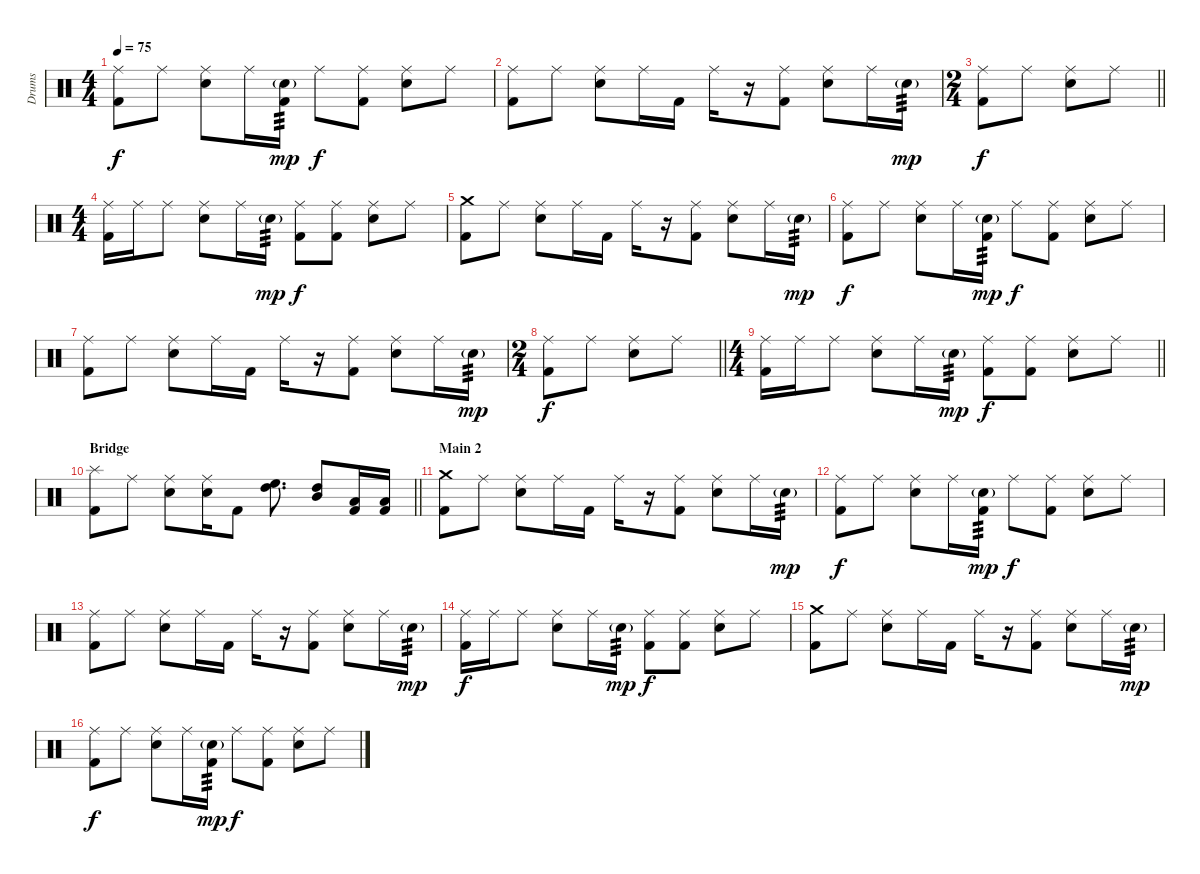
\track ("Drums" "Drums") {instrument percussion}
\staff {score}
\articulation defaults
\ts (4 4)
\tempo 75
\clef neutral
\ks c
("Ride (middle)" "Kick (hit) 2").8{dy f} "Ride (middle)".8 ("Ride (middle)" "Electric Snare (hit)").8 "Ride (middle)".16 ("Electric Snare (hit)"{g} "Kick (hit) 2").16{tp 3 dy mp} "Ride (middle)".8{dy f} ("Ride (middle)" "Kick (hit) 2").8 ("Ride (middle)" "Electric Snare (hit)").8 "Ride (middle)".8 |
("Ride (middle)" "Kick (hit) 2").8 "Ride (middle)".8 ("Ride (middle)" "Electric Snare (hit)").8 "Ride (middle)".16 "Kick (hit) 2".16 "Ride (middle)".16 r.16 ("Ride (middle)" "Kick (hit) 2").8 ("Ride (middle)" "Electric Snare (hit)").8 "Ride (middle)".16 "Electric Snare (hit)"{g}.16{tp 3 dy mp} |
\ts (2 4)
\barLineRight lightlight
("Ride (middle)" "Kick (hit) 2").8{dy f} "Ride (middle)".8 ("Ride (middle)" "Electric Snare (hit)").8 "Ride (middle)".8 |
\ts (4 4)
("Ride (middle)" "Kick (hit) 2").16 "Ride (middle)".16 "Ride (middle)".8 ("Ride (middle)" "Electric Snare (hit)").8 "Ride (middle)".16 "Electric Snare (hit)"{g}.16{tp 3 dy mp} ("Ride (middle)" "Kick (hit) 2").8{dy f} ("Ride (middle)" "Kick (hit) 2").8 ("Ride (middle)" "Electric Snare (hit)").8 "Ride (middle)".8 |
("Crash medium (hit)" "Kick (hit) 2").8 "Ride (middle)".8 ("Ride (middle)" "Electric Snare (hit)").8 "Ride (middle)".16 "Kick (hit) 2".16 "Ride (middle)".16 r.16 ("Ride (middle)" "Kick (hit) 2").8 ("Ride (middle)" "Electric Snare (hit)").8 "Ride (middle)".16 "Electric Snare (hit)"{g}.16{tp 3 dy mp} |
("Ride (middle)" "Kick (hit) 2").8{dy f} "Ride (middle)".8 ("Ride (middle)" "Electric Snare (hit)").8 "Ride (middle)".16 ("Electric Snare (hit)"{g} "Kick (hit) 2").16{tp 3 dy mp} "Ride (middle)".8{dy f} ("Ride (middle)" "Kick (hit) 2").8 ("Ride (middle)" "Electric Snare (hit)").8 "Ride (middle)".8 |
("Ride (middle)" "Kick (hit) 2").8 "Ride (middle)".8 ("Ride (middle)" "Electric Snare (hit)").8 "Ride (middle)".16 "Kick (hit) 2".16 "Ride (middle)".16 r.16 ("Ride (middle)" "Kick (hit) 2").8 ("Ride (middle)" "Electric Snare (hit)").8 "Ride (middle)".16 "Electric Snare (hit)"{g}.16{tp 3 dy mp} |
\ts (2 4)
\barLineRight lightlight
("Ride (middle)" "Kick (hit) 2").8{dy f} "Ride (middle)".8 ("Ride (middle)" "Electric Snare (hit)").8 "Ride (middle)".8 |
\ts (4 4)
\barLineRight lightlight
("Ride (middle)" "Kick (hit) 2").16 "Ride (middle)".16 "Ride (middle)".8 ("Ride (middle)" "Electric Snare (hit)").8 "Ride (middle)".16 "Electric Snare (hit)"{g}.16{tp 3 dy mp} ("Ride (middle)" "Kick (hit) 2").8{dy f} ("Ride (middle)" "Kick (hit) 2").8 ("Ride (middle)" "Electric Snare (hit)").8 "Ride (middle)".8 |
\section ("" "Bridge")
\barLineRight lightlight
("Splash (hit)" "Kick (hit) 2").8 "Ride (middle)".8 ("Ride (middle)" "Electric Snare (hit)").8 ("Ride (middle)" "Electric Snare (hit)").16 "Kick (hit) 2".8 ("High Tom (hit)" "High Floor Tom (hit)").8{d} ("Mid Tom (hit)" "High Tom (hit)").8 ("Low Tom (hit)" "Kick (hit) 2").16 ("Low Tom (hit)" "Kick (hit) 2").16 |
\section ("" "Main 2")
("Crash medium (hit)" "Kick (hit) 2").8 "Ride (middle)".8 ("Ride (middle)" "Electric Snare (hit)").8 "Ride (middle)".16 "Kick (hit) 2".16 "Ride (middle)".16 r.16 ("Ride (middle)" "Kick (hit) 2").8 ("Ride (middle)" "Electric Snare (hit)").8 "Ride (middle)".16 "Electric Snare (hit)"{g}.16{tp 3 dy mp} |
("Ride (middle)" "Kick (hit) 2").8{dy f} "Ride (middle)".8 ("Ride (middle)" "Electric Snare (hit)").8 "Ride (middle)".16 ("Electric Snare (hit)"{g} "Kick (hit) 2").16{tp 3 dy mp} "Ride (middle)".8{dy f} ("Ride (middle)" "Kick (hit) 2").8 ("Ride (middle)" "Electric Snare (hit)").8 "Ride (middle)".8 |
("Ride (middle)" "Kick (hit) 2").8 "Ride (middle)".8 ("Ride (middle)" "Electric Snare (hit)").8 "Ride (middle)".16 "Kick (hit) 2".16 "Ride (middle)".16 r.16 ("Ride (middle)" "Kick (hit) 2").8 ("Ride (middle)" "Electric Snare (hit)").8 "Ride (middle)".16 "Electric Snare (hit)"{g}.16{tp 3 dy mp} |
("Ride (middle)" "Kick (hit) 2").16{dy f} "Ride (middle)".16 "Ride (middle)".8 ("Ride (middle)" "Electric Snare (hit)").8 "Ride (middle)".16 "Electric Snare (hit)"{g}.16{tp 3 dy mp} ("Ride (middle)" "Kick (hit) 2").8{dy f} ("Ride (middle)" "Kick (hit) 2").8 ("Ride (middle)" "Electric Snare (hit)").8 "Ride (middle)".8 |
("Crash medium (hit)" "Kick (hit) 2").8 "Ride (middle)".8 ("Ride (middle)" "Electric Snare (hit)").8 "Ride (middle)".16 "Kick (hit) 2".16 "Ride (middle)".16 r.16 ("Ride (middle)" "Kick (hit) 2").8 ("Ride (middle)" "Electric Snare (hit)").8 "Ride (middle)".16 "Electric Snare (hit)"{g}.16{tp 3 dy mp} |
("Ride (middle)" "Kick (hit) 2").8{dy f} "Ride (middle)".8 ("Ride (middle)" "Electric Snare (hit)").8 "Ride (middle)".16 ("Electric Snare (hit)"{g} "Kick (hit) 2").16{tp 3 dy mp} "Ride (middle)".8{dy f} ("Ride (middle)" "Kick (hit) 2").8 ("Ride (middle)" "Electric Snare (hit)").8 "Ride (middle)".8
